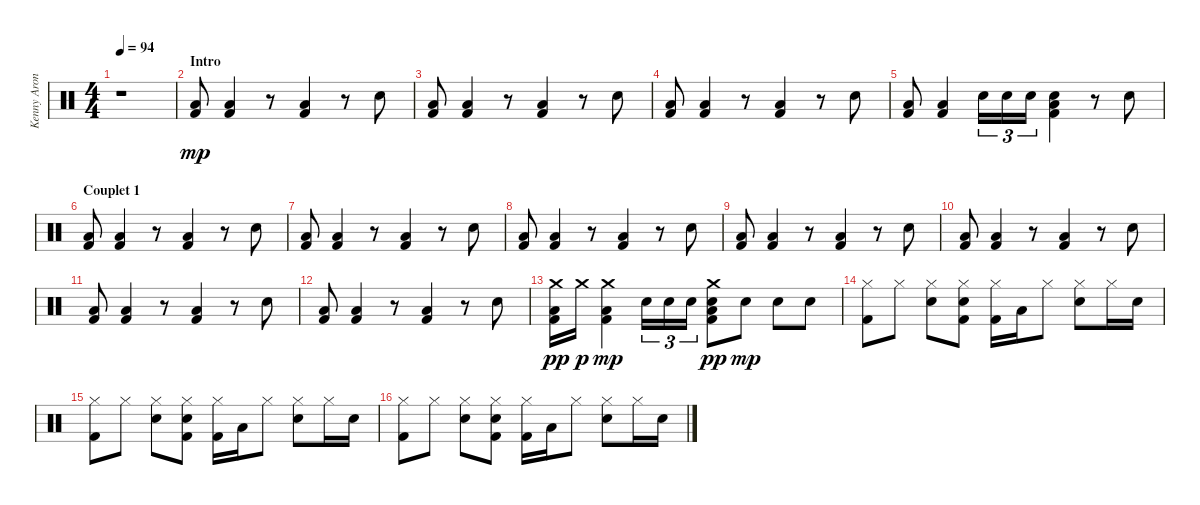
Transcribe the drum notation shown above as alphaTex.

\track ("Kenny Aronoff - Batterie" "Kenny Aron") {instrument percussion}
\staff {score}
\articulation defaults
\ts (4 4)
\tempo 94
\clef neutral
\ks c
r.1{dy mp} |
\section ("" "Intro")
("Low Floor Tom (hit)" "Kick (hit) 2").8 ("Low Floor Tom (hit)" "Kick (hit) 2").4 r.8 ("Low Floor Tom (hit)" "Kick (hit) 2").4 r.8 "Snare (hit)".8 |
("Low Floor Tom (hit)" "Kick (hit) 2").8 ("Low Floor Tom (hit)" "Kick (hit) 2").4 r.8 ("Low Floor Tom (hit)" "Kick (hit) 2").4 r.8 "Snare (hit)".8 |
("Low Floor Tom (hit)" "Kick (hit) 2").8 ("Low Floor Tom (hit)" "Kick (hit) 2").4 r.8 ("Low Floor Tom (hit)" "Kick (hit) 2").4 r.8 "Snare (hit)".8 |
("Low Floor Tom (hit)" "Kick (hit) 2").8 ("Low Floor Tom (hit)" "Kick (hit) 2").4 "Snare (hit)".16{tu (3 2)} "Snare (hit)".16{tu (3 2)} "Snare (hit)".16{tu (3 2)} ("Low Floor Tom (hit)" "Kick (hit) 2" "Snare (hit)").4 r.8 "Snare (hit)".8 |
\section ("" "Couplet 1")
("Low Floor Tom (hit)" "Kick (hit) 2").8 ("Low Floor Tom (hit)" "Kick (hit) 2").4 r.8 ("Low Floor Tom (hit)" "Kick (hit) 2").4 r.8 "Snare (hit)".8 |
("Low Floor Tom (hit)" "Kick (hit) 2").8 ("Low Floor Tom (hit)" "Kick (hit) 2").4 r.8 ("Low Floor Tom (hit)" "Kick (hit) 2").4 r.8 "Snare (hit)".8 |
("Low Floor Tom (hit)" "Kick (hit) 2").8 ("Low Floor Tom (hit)" "Kick (hit) 2").4 r.8 ("Low Floor Tom (hit)" "Kick (hit) 2").4 r.8 "Snare (hit)".8 |
("Low Floor Tom (hit)" "Kick (hit) 2").8 ("Low Floor Tom (hit)" "Kick (hit) 2").4 r.8 ("Low Floor Tom (hit)" "Kick (hit) 2").4 r.8 "Snare (hit)".8 |
("Low Floor Tom (hit)" "Kick (hit) 2").8 ("Low Floor Tom (hit)" "Kick (hit) 2").4 r.8 ("Low Floor Tom (hit)" "Kick (hit) 2").4 r.8 "Snare (hit)".8 |
("Low Floor Tom (hit)" "Kick (hit) 2").8 ("Low Floor Tom (hit)" "Kick (hit) 2").4 r.8 ("Low Floor Tom (hit)" "Kick (hit) 2").4 r.8 "Snare (hit)".8 |
("Low Floor Tom (hit)" "Kick (hit) 2").8 ("Low Floor Tom (hit)" "Kick (hit) 2").4 r.8 ("Low Floor Tom (hit)" "Kick (hit) 2").4 r.8 "Snare (hit)".8 |
("Low Floor Tom (hit)" "Kick (hit) 2" "Crash medium (hit)").16{dy pp} "Crash medium (hit)".16{dy p} ("Low Floor Tom (hit)" "Kick (hit) 2" "Crash medium (hit)").4{dy mp} "Snare (hit)".16{tu (3 2)} "Snare (hit)".16{tu (3 2)} "Snare (hit)".16{tu (3 2)} ("Low Floor Tom (hit)" "Kick (hit) 2" "Snare (hit)" "Crash medium (hit)").8{dy pp} "Snare (hit)".8{dy mp} "Snare (hit)".8 "Snare (hit)".8 |
("Kick (hit) 2" "Hi-Hat (closed)").8 "Hi-Hat (closed)".8 ("Electric Snare (hit)" "Hi-Hat (closed)").8 ("Kick (hit) 2" "Hi-Hat (closed)" "Electric Snare (hit)").8 ("Kick (hit) 2" "Hi-Hat (closed)").16 "Low Tom (hit)".16 "Hi-Hat (closed)".8 ("Electric Snare (hit)" "Hi-Hat (closed)").8 "Hi-Hat (closed)".16 "Electric Snare (hit)".16 |
("Kick (hit) 2" "Hi-Hat (closed)").8 "Hi-Hat (closed)".8 ("Electric Snare (hit)" "Hi-Hat (closed)").8 ("Kick (hit) 2" "Hi-Hat (closed)" "Electric Snare (hit)").8 ("Kick (hit) 2" "Hi-Hat (closed)").16 "Low Tom (hit)".16 "Hi-Hat (closed)".8 ("Electric Snare (hit)" "Hi-Hat (closed)").8 "Hi-Hat (closed)".16 "Electric Snare (hit)".16 |
("Kick (hit) 2" "Hi-Hat (closed)").8 "Hi-Hat (closed)".8 ("Electric Snare (hit)" "Hi-Hat (closed)").8 ("Kick (hit) 2" "Hi-Hat (closed)" "Electric Snare (hit)").8 ("Kick (hit) 2" "Hi-Hat (closed)").16 "Low Tom (hit)".16 "Hi-Hat (closed)".8 ("Electric Snare (hit)" "Hi-Hat (closed)").8 "Hi-Hat (closed)".16 "Electric Snare (hit)".16
